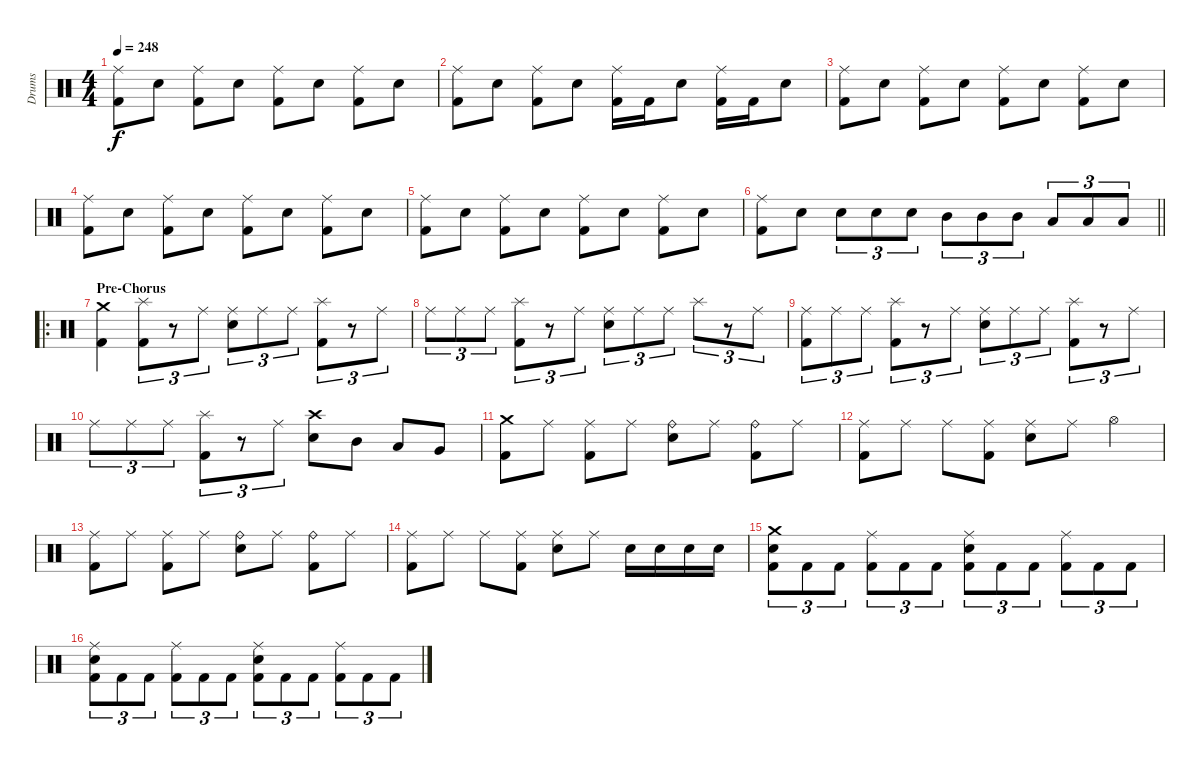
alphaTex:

\track ("Drums" "Drums") {instrument percussion}
\staff {score}
\articulation defaults
\ts (4 4)
\tempo 248
\clef neutral
\ks c
("Ride (middle)" "Kick (hit) 2").8{dy f} "Snare (hit) 2".8 ("Ride (middle)" "Kick (hit) 2").8 "Snare (hit) 2".8 ("Ride (middle)" "Kick (hit) 2").8 "Snare (hit) 2".8 ("Ride (middle)" "Kick (hit) 2").8 "Snare (hit) 2".8 |
("Ride (middle)" "Kick (hit) 2").8 "Snare (hit) 2".8 ("Ride (middle)" "Kick (hit) 2").8 "Snare (hit) 2".8 ("Ride (middle)" "Kick (hit) 2").16 "Kick (hit) 2".16 "Snare (hit) 2".8 ("Ride (middle)" "Kick (hit) 2").16 "Kick (hit) 2".16 "Snare (hit) 2".8 |
("Ride (middle)" "Kick (hit) 2").8 "Snare (hit) 2".8 ("Ride (middle)" "Kick (hit) 2").8 "Snare (hit) 2".8 ("Ride (middle)" "Kick (hit) 2").8 "Snare (hit) 2".8 ("Ride (middle)" "Kick (hit) 2").8 "Snare (hit) 2".8 |
("Ride (middle)" "Kick (hit) 2").8 "Snare (hit) 2".8 ("Ride (middle)" "Kick (hit) 2").8 "Snare (hit) 2".8 ("Ride (middle)" "Kick (hit) 2").8 "Snare (hit) 2".8 ("Ride (middle)" "Kick (hit) 2").8 "Snare (hit) 2".8 |
("Ride (middle)" "Kick (hit) 2").8 "Snare (hit) 2".8 ("Ride (middle)" "Kick (hit) 2").8 "Snare (hit) 2".8 ("Ride (middle)" "Kick (hit) 2").8 "Snare (hit) 2".8 ("Ride (middle)" "Kick (hit) 2").8 "Snare (hit) 2".8 |
\barLineRight lightlight
("Ride (middle)" "Kick (hit) 2").8 "Snare (hit) 2".8 "Snare (hit) 2".8{tu (3 2)} "Snare (hit) 2".8{tu (3 2)} "Snare (hit) 2".8{tu (3 2)} "Mid Tom (hit)".8{tu (3 2)} "Mid Tom (hit)".8{tu (3 2)} "Mid Tom (hit)".8{tu (3 2)} "Low Tom (hit)".8{tu (3 2)} "Low Tom (hit)".8{tu (3 2)} "Low Tom (hit)".8{tu (3 2)} |
\ro
\section ("" "Pre-Chorus")
("Crash medium (hit)" "Kick (hit) 2").4 ("Splash (hit)" "Kick (hit) 2").8{tu (3 2)} r.8{tu (3 2)} "Ride (middle)".8{tu (3 2)} ("Ride (middle)" "Snare (hit) 2").8{tu (3 2)} "Ride (middle)".8{tu (3 2)} "Ride (middle)".8{tu (3 2)} ("Splash (hit)" "Kick (hit) 2").8{tu (3 2)} r.8{tu (3 2)} "Ride (middle)".8{tu (3 2)} |
"Ride (middle)".8{tu (3 2)} "Ride (middle)".8{tu (3 2)} "Ride (middle)".8{tu (3 2)} ("Splash (hit)" "Kick (hit) 2").8{tu (3 2)} r.8{tu (3 2)} "Ride (middle)".8{tu (3 2)} ("Ride (middle)" "Snare (hit) 2").8{tu (3 2)} "Ride (middle)".8{tu (3 2)} "Ride (middle)".8{tu (3 2)} "Splash (hit)".8{tu (3 2)} r.8{tu (3 2)} "Ride (middle)".8{tu (3 2)} |
("Ride (middle)" "Kick (hit) 2").8{tu (3 2)} "Ride (middle)".8{tu (3 2)} "Ride (middle)".8{tu (3 2)} ("Splash (hit)" "Kick (hit) 2").8{tu (3 2)} r.8{tu (3 2)} "Ride (middle)".8{tu (3 2)} ("Ride (middle)" "Snare (hit) 2").8{tu (3 2)} "Ride (middle)".8{tu (3 2)} "Ride (middle)".8{tu (3 2)} ("Splash (hit)" "Kick (hit) 2").8{tu (3 2)} r.8{tu (3 2)} "Ride (middle)".8{tu (3 2)} |
"Ride (middle)".8{tu (3 2)} "Ride (middle)".8{tu (3 2)} "Ride (middle)".8{tu (3 2)} ("Splash (hit)" "Kick (hit) 2").8{tu (3 2)} r.8{tu (3 2)} "Ride (middle)".8{tu (3 2)} ("Crash high (hit)" "Snare (hit) 2").8 "Mid Tom (hit)".8 "Low Tom (hit)".8 "Very Low Tom (hit)".8 |
("Crash medium (hit)" "Kick (hit) 2").8 "Ride (middle)".8 ("Ride (middle)" "Kick (hit) 2").8 "Ride (middle)".8 ("Ride (bell)" "Snare (hit) 2").8 "Ride (middle)".8 ("Ride (bell)" "Kick (hit) 2").8 "Ride (middle)".8 |
("Ride (middle)" "Kick (hit) 2").8 "Ride (middle)".8 "Ride (middle)".8 ("Ride (middle)" "Kick (hit) 2").8 ("Ride (middle)" "Snare (hit) 2").8 "Ride (middle)".8 "Hi-Hat (open)".4 |
("Ride (middle)" "Kick (hit) 2").8 "Ride (middle)".8 ("Ride (middle)" "Kick (hit) 2").8 "Ride (middle)".8 ("Ride (bell)" "Snare (hit) 2").8 "Ride (middle)".8 ("Ride (bell)" "Kick (hit) 2").8 "Ride (middle)".8 |
("Ride (middle)" "Kick (hit) 2").8 "Ride (middle)".8 "Ride (middle)".8 ("Ride (middle)" "Kick (hit) 2").8 ("Ride (middle)" "Snare (hit) 2").8 "Ride (middle)".8 "Snare (hit) 2".16 "Snare (hit) 2".16 "Snare (hit) 2".16 "Snare (hit) 2".16 |
("Crash medium (hit)" "Snare (hit) 2" "Kick (hit) 2").8{tu (3 2)} "Kick (hit) 2".8{tu (3 2)} "Kick (hit) 2".8{tu (3 2)} ("Ride (middle)" "Kick (hit) 2").8{tu (3 2)} "Kick (hit) 2".8{tu (3 2)} "Kick (hit) 2".8{tu (3 2)} ("Ride (middle)" "Snare (hit) 2" "Kick (hit) 2").8{tu (3 2)} "Kick (hit) 2".8{tu (3 2)} "Kick (hit) 2".8{tu (3 2)} ("Ride (middle)" "Kick (hit) 2").8{tu (3 2)} "Kick (hit) 2".8{tu (3 2)} "Kick (hit) 2".8{tu (3 2)} |
("Ride (middle)" "Snare (hit) 2" "Kick (hit) 2").8{tu (3 2)} "Kick (hit) 2".8{tu (3 2)} "Kick (hit) 2".8{tu (3 2)} ("Ride (middle)" "Kick (hit) 2").8{tu (3 2)} "Kick (hit) 2".8{tu (3 2)} "Kick (hit) 2".8{tu (3 2)} ("Ride (middle)" "Snare (hit) 2" "Kick (hit) 2").8{tu (3 2)} "Kick (hit) 2".8{tu (3 2)} "Kick (hit) 2".8{tu (3 2)} ("Ride (middle)" "Kick (hit) 2").8{tu (3 2)} "Kick (hit) 2".8{tu (3 2)} "Kick (hit) 2".8{tu (3 2)}
